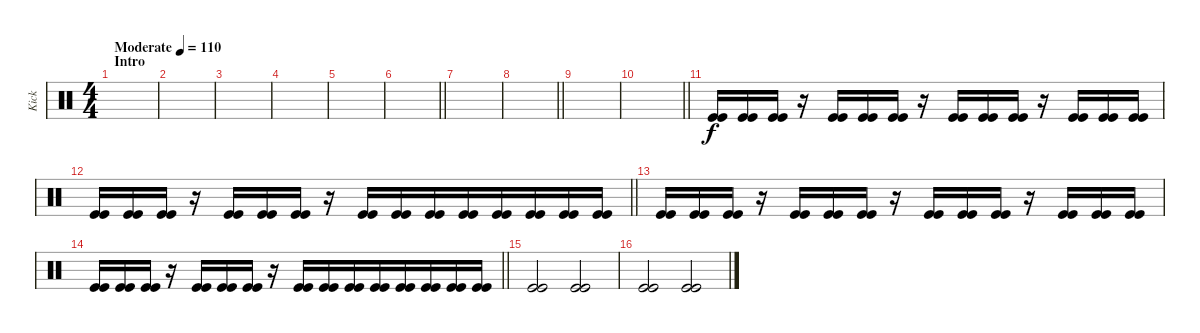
\track ("Kick" "Kick") {instrument percussion}
\staff {score}
\articulation defaults
\ts (4 4)
\section ("" "Intro")
\tempo (110 "Moderate")
\clef neutral
\ks c
|
|
|
|
|
\barLineRight lightlight
|
|
\barLineRight lightlight
|
|
\barLineRight lightlight
|
("Kick (hit)" "Kick (hit)").16 ("Kick (hit)" "Kick (hit)").16{beam merge} ("Kick (hit)" "Kick (hit)").16 r.16 ("Kick (hit)" "Kick (hit)").16 ("Kick (hit)" "Kick (hit)").16 ("Kick (hit)" "Kick (hit)").16 r.16 ("Kick (hit)" "Kick (hit)").16 ("Kick (hit)" "Kick (hit)").16 ("Kick (hit)" "Kick (hit)").16 r.16{beam merge} ("Kick (hit)" "Kick (hit)").16{beam merge} ("Kick (hit)" "Kick (hit)").16 ("Kick (hit)" "Kick (hit)").16 |
\barLineRight lightlight
("Kick (hit)" "Kick (hit)").16 ("Kick (hit)" "Kick (hit)").16{beam merge} ("Kick (hit)" "Kick (hit)").16 r.16 ("Kick (hit)" "Kick (hit)").16 ("Kick (hit)" "Kick (hit)").16 ("Kick (hit)" "Kick (hit)").16 r.16 ("Kick (hit)" "Kick (hit)").16 ("Kick (hit)" "Kick (hit)").16 ("Kick (hit)" "Kick (hit)").16 ("Kick (hit)" "Kick (hit)").16{beam merge} ("Kick (hit)" "Kick (hit)").16{beam merge} ("Kick (hit)" "Kick (hit)").16 ("Kick (hit)" "Kick (hit)").16 ("Kick (hit)" "Kick (hit)").16 |
("Kick (hit)" "Kick (hit)").16 ("Kick (hit)" "Kick (hit)").16{beam merge} ("Kick (hit)" "Kick (hit)").16 r.16 ("Kick (hit)" "Kick (hit)").16 ("Kick (hit)" "Kick (hit)").16 ("Kick (hit)" "Kick (hit)").16 r.16 ("Kick (hit)" "Kick (hit)").16 ("Kick (hit)" "Kick (hit)").16 ("Kick (hit)" "Kick (hit)").16 r.16{beam merge} ("Kick (hit)" "Kick (hit)").16{beam merge} ("Kick (hit)" "Kick (hit)").16 ("Kick (hit)" "Kick (hit)").16 |
\barLineRight lightlight
("Kick (hit)" "Kick (hit)").16 ("Kick (hit)" "Kick (hit)").16{beam merge} ("Kick (hit)" "Kick (hit)").16 r.16 ("Kick (hit)" "Kick (hit)").16 ("Kick (hit)" "Kick (hit)").16 ("Kick (hit)" "Kick (hit)").16 r.16 ("Kick (hit)" "Kick (hit)").16 ("Kick (hit)" "Kick (hit)").16 ("Kick (hit)" "Kick (hit)").16 ("Kick (hit)" "Kick (hit)").16{beam merge} ("Kick (hit)" "Kick (hit)").16{beam merge} ("Kick (hit)" "Kick (hit)").16 ("Kick (hit)" "Kick (hit)").16 ("Kick (hit)" "Kick (hit)").16 |
("Kick (hit)" "Kick (hit)").2{beam merge} ("Kick (hit)" "Kick (hit)").2 |
("Kick (hit)" "Kick (hit)").2{beam merge} ("Kick (hit)" "Kick (hit)").2
